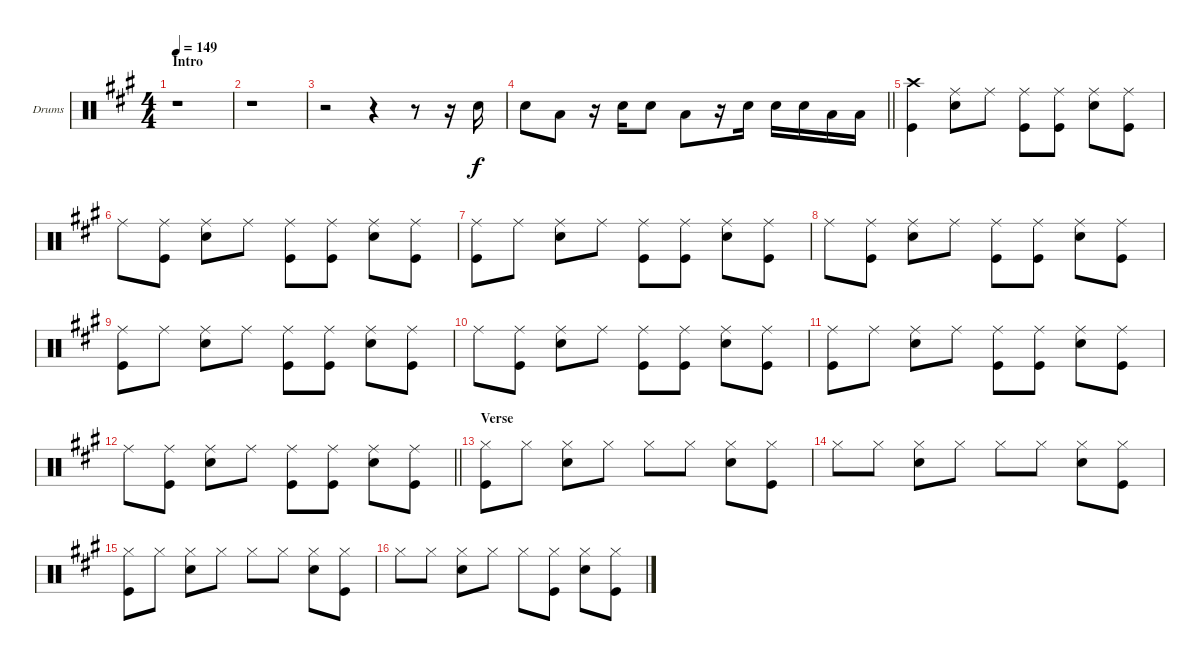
\defaultSystemsLayout 4
\bracketExtendMode groupsimilarinstruments
\firstSystemTrackNameOrientation horizontal
\otherSystemsTrackNameOrientation horizontal
\track ("Drums" "Drums") {instrument percussion}
\staff {score}
\articulation defaults
\ts (4 4)
\section ("" "Intro")
\tempo 149
\clef neutral
\ks a
r.1{dy f} |
r.1 |
r.2 r.4 r.8 r.16 "Snare (hit) 2".16 |
\barLineRight lightlight "Snare (hit) 2".8 "Low Tom (hit)".8
r.16 "Snare (hit) 2".16 "Snare (hit) 2".8 "Low Tom (hit)".8 r.16 "Snare (hit) 2".16 "Snare (hit) 2".16 "Snare (hit) 2".16 "Low Tom (hit)".16 "Low Tom (hit)".16 |
("Kick (hit)" "Crash high (hit)").4 ("Ride (middle)" "Snare (hit) 2").8 "Ride (middle)".8 ("Ride (middle)" "Kick (hit)").8 ("Ride (middle)" "Kick (hit)").8 ("Ride (middle)" "Snare (hit) 2").8 ("Ride (middle)" "Kick (hit)").8 |
"Ride (middle)".8 ("Ride (middle)" "Kick (hit)").8 ("Ride (middle)" "Snare (hit) 2").8 "Ride (middle)".8 ("Ride (middle)" "Kick (hit)").8 ("Ride (middle)" "Kick (hit)").8 ("Ride (middle)" "Snare (hit) 2").8 ("Ride (middle)" "Kick (hit)").8 |
("Kick (hit)" "Ride (middle)").8 "Ride (middle)".8 ("Ride (middle)" "Snare (hit) 2").8 "Ride (middle)".8 ("Ride (middle)" "Kick (hit)").8 ("Ride (middle)" "Kick (hit)").8 ("Ride (middle)" "Snare (hit) 2").8 ("Ride (middle)" "Kick (hit)").8 |
"Ride (middle)".8 ("Ride (middle)" "Kick (hit)").8 ("Ride (middle)" "Snare (hit) 2").8 "Ride (middle)".8 ("Ride (middle)" "Kick (hit)").8 ("Ride (middle)" "Kick (hit)").8 ("Ride (middle)" "Snare (hit) 2").8 ("Ride (middle)" "Kick (hit)").8 |
("Kick (hit)" "Ride (middle)").8 "Ride (middle)".8 ("Ride (middle)" "Snare (hit) 2").8 "Ride (middle)".8 ("Ride (middle)" "Kick (hit)").8 ("Ride (middle)" "Kick (hit)").8 ("Ride (middle)" "Snare (hit) 2").8 ("Ride (middle)" "Kick (hit)").8 |
"Ride (middle)".8 ("Ride (middle)" "Kick (hit)").8 ("Ride (middle)" "Snare (hit) 2").8 "Ride (middle)".8 ("Ride (middle)" "Kick (hit)").8 ("Ride (middle)" "Kick (hit)").8 ("Ride (middle)" "Snare (hit) 2").8 ("Ride (middle)" "Kick (hit)").8 |
("Kick (hit)" "Ride (middle)").8 "Ride (middle)".8 ("Ride (middle)" "Snare (hit) 2").8 "Ride (middle)".8 ("Ride (middle)" "Kick (hit)").8 ("Ride (middle)" "Kick (hit)").8 ("Ride (middle)" "Snare (hit) 2").8 ("Ride (middle)" "Kick (hit)").8 |
\barLineRight lightlight "Ride (middle)".8
("Ride (middle)" "Kick (hit)").8 ("Ride (middle)" "Snare (hit) 2").8 "Ride (middle)".8 ("Ride (middle)" "Kick (hit)").8 ("Ride (middle)" "Kick (hit)").8 ("Ride (middle)" "Snare (hit) 2").8 ("Ride (middle)" "Kick (hit)").8 |
\section ("" "Verse")
("Kick (hit)" "Hi-Hat (closed)").8 "Hi-Hat (closed)".8 ("Hi-Hat (closed)" "Snare (hit) 2").8 "Hi-Hat (closed)".8 "Hi-Hat (closed)".8 "Hi-Hat (closed)".8 ("Hi-Hat (closed)" "Snare (hit) 2").8 ("Hi-Hat (closed)" "Kick (hit)").8 |
"Hi-Hat (closed)".8 "Hi-Hat (closed)".8 ("Hi-Hat (closed)" "Snare (hit) 2").8 "Hi-Hat (closed)".8 "Hi-Hat (closed)".8 "Hi-Hat (closed)".8 ("Hi-Hat (closed)" "Snare (hit) 2").8 ("Hi-Hat (closed)" "Kick (hit)").8 |
("Kick (hit)" "Hi-Hat (closed)").8 "Hi-Hat (closed)".8 ("Hi-Hat (closed)" "Snare (hit) 2").8 "Hi-Hat (closed)".8 "Hi-Hat (closed)".8 "Hi-Hat (closed)".8 ("Hi-Hat (closed)" "Snare (hit) 2").8 ("Hi-Hat (closed)" "Kick (hit)").8 |
"Hi-Hat (closed)".8 "Hi-Hat (closed)".8 ("Hi-Hat (closed)" "Snare (hit) 2").8 "Hi-Hat (closed)".8 "Hi-Hat (closed)".8 ("Hi-Hat (closed)" "Kick (hit)").8 ("Hi-Hat (closed)" "Snare (hit) 2").8 ("Hi-Hat (closed)" "Kick (hit)").8
